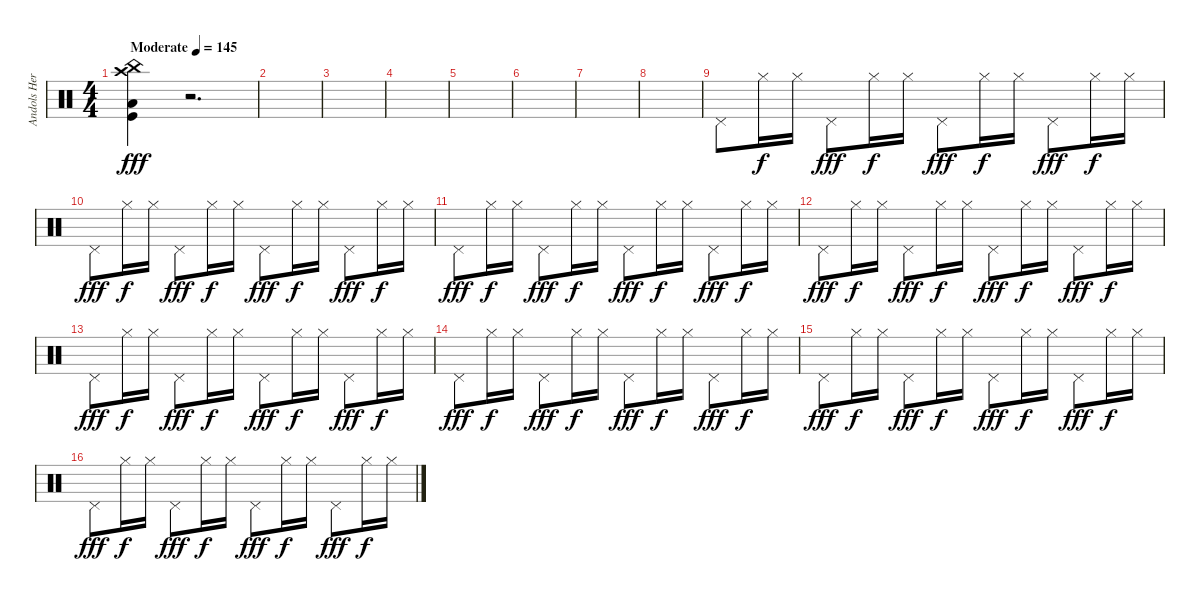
\track ("Andols Herrick" "Andols Her") {instrument percussion}
\staff {score}
\articulation defaults
\ts (4 4)
\tempo (145 "Moderate")
\clef neutral
\ks c
("China (hit)" "Crash high (hit)" "Low Floor Tom (hit)" "Kick (hit)").4{dy fff} r.2{d} |
|
|
|
|
|
|
|
"Pedal Hi-Hat (hit)".8 "Hi-Hat (closed)".16{dy f} "Hi-Hat (closed)".16 "Pedal Hi-Hat (hit)".8{dy fff} "Hi-Hat (closed)".16{dy f} "Hi-Hat (closed)".16 "Pedal Hi-Hat (hit)".8{dy fff} "Hi-Hat (closed)".16{dy f} "Hi-Hat (closed)".16 "Pedal Hi-Hat (hit)".8{dy fff} "Hi-Hat (closed)".16{dy f} "Hi-Hat (closed)".16 |
"Pedal Hi-Hat (hit)".8{dy fff} "Hi-Hat (closed)".16{dy f} "Hi-Hat (closed)".16 "Pedal Hi-Hat (hit)".8{dy fff} "Hi-Hat (closed)".16{dy f} "Hi-Hat (closed)".16 "Pedal Hi-Hat (hit)".8{dy fff} "Hi-Hat (closed)".16{dy f} "Hi-Hat (closed)".16 "Pedal Hi-Hat (hit)".8{dy fff} "Hi-Hat (closed)".16{dy f} "Hi-Hat (closed)".16 |
"Pedal Hi-Hat (hit)".8{dy fff} "Hi-Hat (closed)".16{dy f} "Hi-Hat (closed)".16 "Pedal Hi-Hat (hit)".8{dy fff} "Hi-Hat (closed)".16{dy f} "Hi-Hat (closed)".16 "Pedal Hi-Hat (hit)".8{dy fff} "Hi-Hat (closed)".16{dy f} "Hi-Hat (closed)".16 "Pedal Hi-Hat (hit)".8{dy fff} "Hi-Hat (closed)".16{dy f} "Hi-Hat (closed)".16 |
"Pedal Hi-Hat (hit)".8{dy fff} "Hi-Hat (closed)".16{dy f} "Hi-Hat (closed)".16 "Pedal Hi-Hat (hit)".8{dy fff} "Hi-Hat (closed)".16{dy f} "Hi-Hat (closed)".16 "Pedal Hi-Hat (hit)".8{dy fff} "Hi-Hat (closed)".16{dy f} "Hi-Hat (closed)".16 "Pedal Hi-Hat (hit)".8{dy fff} "Hi-Hat (closed)".16{dy f} "Hi-Hat (closed)".16 |
"Pedal Hi-Hat (hit)".8{dy fff} "Hi-Hat (closed)".16{dy f} "Hi-Hat (closed)".16 "Pedal Hi-Hat (hit)".8{dy fff} "Hi-Hat (closed)".16{dy f} "Hi-Hat (closed)".16 "Pedal Hi-Hat (hit)".8{dy fff} "Hi-Hat (closed)".16{dy f} "Hi-Hat (closed)".16 "Pedal Hi-Hat (hit)".8{dy fff} "Hi-Hat (closed)".16{dy f} "Hi-Hat (closed)".16 |
"Pedal Hi-Hat (hit)".8{dy fff} "Hi-Hat (closed)".16{dy f} "Hi-Hat (closed)".16 "Pedal Hi-Hat (hit)".8{dy fff} "Hi-Hat (closed)".16{dy f} "Hi-Hat (closed)".16 "Pedal Hi-Hat (hit)".8{dy fff} "Hi-Hat (closed)".16{dy f} "Hi-Hat (closed)".16 "Pedal Hi-Hat (hit)".8{dy fff} "Hi-Hat (closed)".16{dy f} "Hi-Hat (closed)".16 |
"Pedal Hi-Hat (hit)".8{dy fff} "Hi-Hat (closed)".16{dy f} "Hi-Hat (closed)".16 "Pedal Hi-Hat (hit)".8{dy fff} "Hi-Hat (closed)".16{dy f} "Hi-Hat (closed)".16 "Pedal Hi-Hat (hit)".8{dy fff} "Hi-Hat (closed)".16{dy f} "Hi-Hat (closed)".16 "Pedal Hi-Hat (hit)".8{dy fff} "Hi-Hat (closed)".16{dy f} "Hi-Hat (closed)".16 |
"Pedal Hi-Hat (hit)".8{dy fff} "Hi-Hat (closed)".16{dy f} "Hi-Hat (closed)".16 "Pedal Hi-Hat (hit)".8{dy fff} "Hi-Hat (closed)".16{dy f} "Hi-Hat (closed)".16 "Pedal Hi-Hat (hit)".8{dy fff} "Hi-Hat (closed)".16{dy f} "Hi-Hat (closed)".16 "Pedal Hi-Hat (hit)".8{dy fff} "Hi-Hat (closed)".16{dy f} "Hi-Hat (closed)".16
